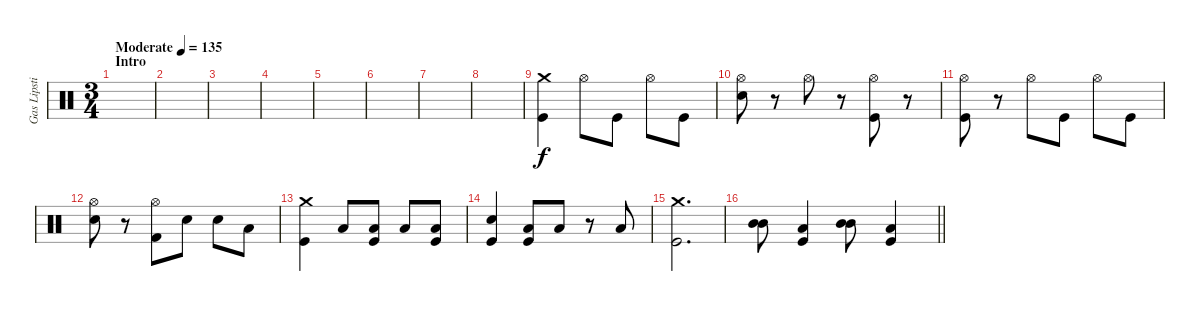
\track ("Gas Lipstick" "Gas Lipsti") {instrument percussion}
\staff {score}
\articulation defaults
\ts (3 4)
\section ("" "Intro")
\tempo (135 "Moderate")
\clef neutral
\ks c
|
|
|
|
|
|
|
|
("Crash medium (hit)" "Kick (hit)").4 "Hi-Hat (open)".8 "Kick (hit)".8 "Hi-Hat (open)".8 "Kick (hit)".8 |
("Hi-Hat (open)" "Snare (hit) 2").8 r.8 "Hi-Hat (open)".8 r.8 ("Hi-Hat (open)" "Kick (hit)").8 r.8 |
("Hi-Hat (open)" "Kick (hit)").8 r.8 "Hi-Hat (open)".8 "Kick (hit)".8 "Hi-Hat (open)".8 "Kick (hit)".8 |
("Hi-Hat (open)" "Snare (hit) 2").8 r.8 ("Hi-Hat (open)" "Kick (hit) 2").8 "Snare (hit) 2".8 "Snare (hit) 2".8 "Low Tom (hit)".8 |
("Crash medium (hit)" "Kick (hit)").4 "Low Tom (hit)".8 ("Low Tom (hit)" "Kick (hit)").8 "Low Tom (hit)".8 ("Low Tom (hit)" "Kick (hit)").8 |
("Snare (hit) 2" "Kick (hit)").4 ("Low Tom (hit)" "Kick (hit)").8 "Low Tom (hit)".8 r.8 "Low Tom (hit)".8 |
("Crash medium (hit)" "Kick (hit)").2{d} |
\barLineRight lightlight
("Mid Tom (hit)" "Mid Tom (hit)").8{bd 240} ("Low Tom (hit)" "Kick (hit)").4 ("Mid Tom (hit)" "Mid Tom (hit)").8{bd 240} ("Kick (hit)" "Low Tom (hit)").4
